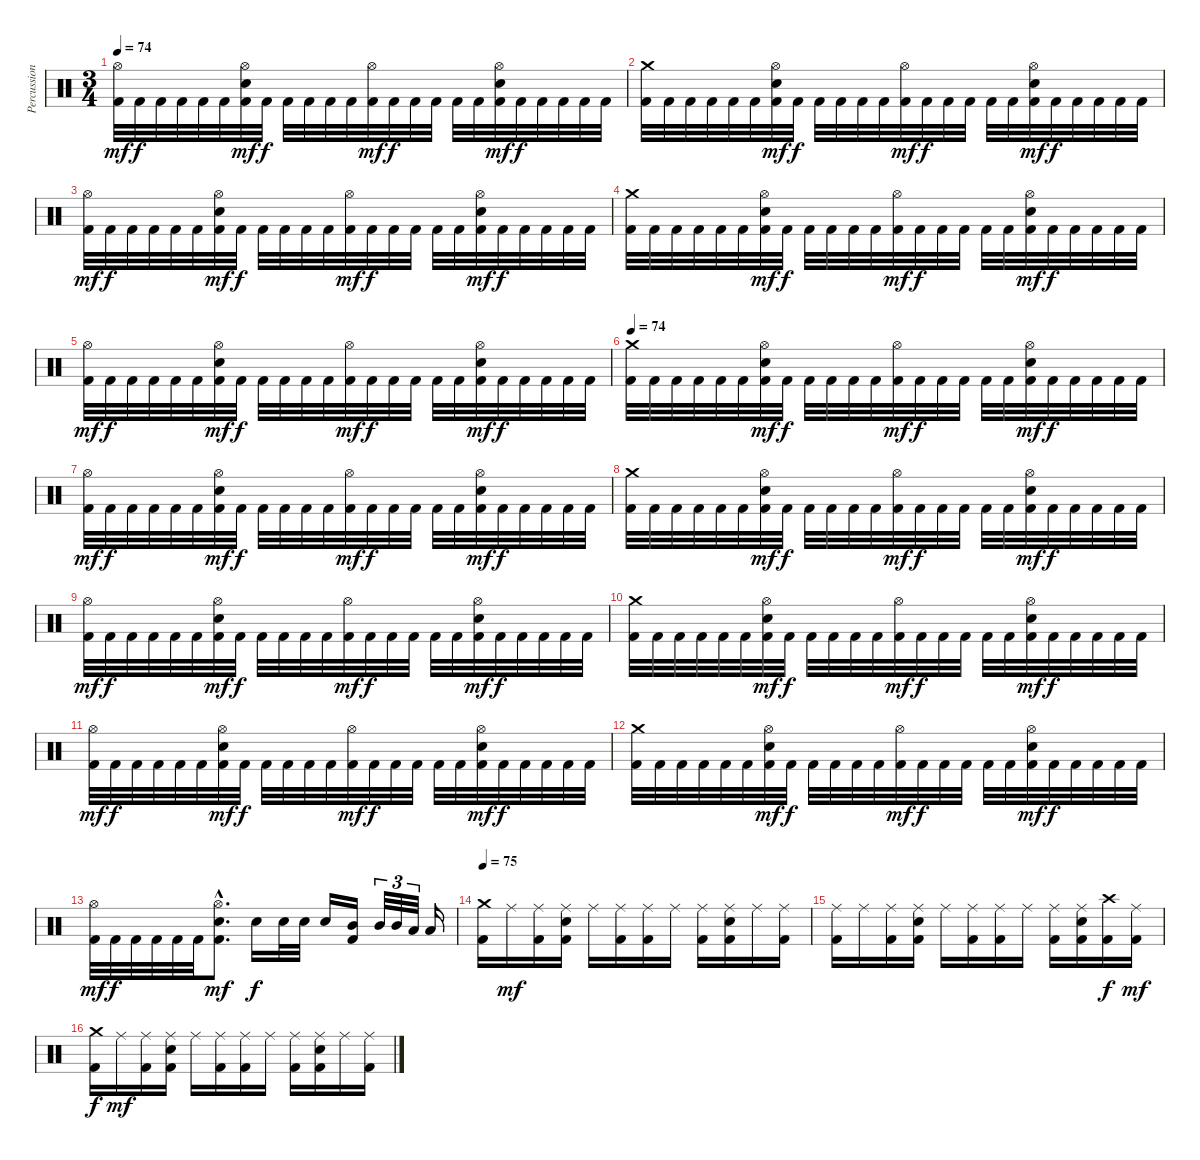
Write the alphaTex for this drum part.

\track ("Percussion" "Percussion") {instrument percussion}
\staff {score}
\articulation defaults
\ts (3 4)
\tempo 74
\clef neutral
\ks c
("Hi-Hat (open)" "Kick (hit) 2").32{dy mf} "Kick (hit) 2".32{dy f} "Kick (hit) 2".32 "Kick (hit) 2".32 "Kick (hit) 2".32 "Kick (hit) 2".32 ("Hi-Hat (open)" "Electric Snare (hit)" "Kick (hit) 2").32{dy mf} "Kick (hit) 2".32{dy f} "Kick (hit) 2".32 "Kick (hit) 2".32 "Kick (hit) 2".32 "Kick (hit) 2".32 ("Hi-Hat (open)" "Kick (hit) 2").32{dy mf} "Kick (hit) 2".32{dy f} "Kick (hit) 2".32 "Kick (hit) 2".32 "Kick (hit) 2".32 "Kick (hit) 2".32 ("Hi-Hat (open)" "Electric Snare (hit)" "Kick (hit) 2").32{dy mf} "Kick (hit) 2".32{dy f} "Kick (hit) 2".32 "Kick (hit) 2".32 "Kick (hit) 2".32 "Kick (hit) 2".32 |
("Crash medium (hit)" "Kick (hit) 2").32 "Kick (hit) 2".32 "Kick (hit) 2".32 "Kick (hit) 2".32 "Kick (hit) 2".32 "Kick (hit) 2".32 ("Hi-Hat (open)" "Electric Snare (hit)" "Kick (hit) 2").32{dy mf} "Kick (hit) 2".32{dy f} "Kick (hit) 2".32 "Kick (hit) 2".32 "Kick (hit) 2".32 "Kick (hit) 2".32 ("Hi-Hat (open)" "Kick (hit) 2").32{dy mf} "Kick (hit) 2".32{dy f} "Kick (hit) 2".32 "Kick (hit) 2".32 "Kick (hit) 2".32 "Kick (hit) 2".32 ("Hi-Hat (open)" "Electric Snare (hit)" "Kick (hit) 2").32{dy mf} "Kick (hit) 2".32{dy f} "Kick (hit) 2".32 "Kick (hit) 2".32 "Kick (hit) 2".32 "Kick (hit) 2".32 |
("Hi-Hat (open)" "Kick (hit) 2").32{dy mf} "Kick (hit) 2".32{dy f} "Kick (hit) 2".32 "Kick (hit) 2".32 "Kick (hit) 2".32 "Kick (hit) 2".32 ("Hi-Hat (open)" "Electric Snare (hit)" "Kick (hit) 2").32{dy mf} "Kick (hit) 2".32{dy f} "Kick (hit) 2".32 "Kick (hit) 2".32 "Kick (hit) 2".32 "Kick (hit) 2".32 ("Hi-Hat (open)" "Kick (hit) 2").32{dy mf} "Kick (hit) 2".32{dy f} "Kick (hit) 2".32 "Kick (hit) 2".32 "Kick (hit) 2".32 "Kick (hit) 2".32 ("Hi-Hat (open)" "Electric Snare (hit)" "Kick (hit) 2").32{dy mf} "Kick (hit) 2".32{dy f} "Kick (hit) 2".32 "Kick (hit) 2".32 "Kick (hit) 2".32 "Kick (hit) 2".32 |
("Crash medium (hit)" "Kick (hit) 2").32 "Kick (hit) 2".32 "Kick (hit) 2".32 "Kick (hit) 2".32 "Kick (hit) 2".32 "Kick (hit) 2".32 ("Hi-Hat (open)" "Electric Snare (hit)" "Kick (hit) 2").32{dy mf} "Kick (hit) 2".32{dy f} "Kick (hit) 2".32 "Kick (hit) 2".32 "Kick (hit) 2".32 "Kick (hit) 2".32 ("Hi-Hat (open)" "Kick (hit) 2").32{dy mf} "Kick (hit) 2".32{dy f} "Kick (hit) 2".32 "Kick (hit) 2".32 "Kick (hit) 2".32 "Kick (hit) 2".32 ("Hi-Hat (open)" "Electric Snare (hit)" "Kick (hit) 2").32{dy mf} "Kick (hit) 2".32{dy f} "Kick (hit) 2".32 "Kick (hit) 2".32 "Kick (hit) 2".32 "Kick (hit) 2".32 |
("Hi-Hat (open)" "Kick (hit) 2").32{dy mf} "Kick (hit) 2".32{dy f} "Kick (hit) 2".32 "Kick (hit) 2".32 "Kick (hit) 2".32 "Kick (hit) 2".32 ("Hi-Hat (open)" "Electric Snare (hit)" "Kick (hit) 2").32{dy mf} "Kick (hit) 2".32{dy f} "Kick (hit) 2".32 "Kick (hit) 2".32 "Kick (hit) 2".32 "Kick (hit) 2".32 ("Hi-Hat (open)" "Kick (hit) 2").32{dy mf} "Kick (hit) 2".32{dy f} "Kick (hit) 2".32 "Kick (hit) 2".32 "Kick (hit) 2".32 "Kick (hit) 2".32 ("Hi-Hat (open)" "Electric Snare (hit)" "Kick (hit) 2").32{dy mf} "Kick (hit) 2".32{dy f} "Kick (hit) 2".32 "Kick (hit) 2".32 "Kick (hit) 2".32 "Kick (hit) 2".32 |
\tempo 74
("Crash medium (hit)" "Kick (hit) 2").32 "Kick (hit) 2".32 "Kick (hit) 2".32 "Kick (hit) 2".32 "Kick (hit) 2".32 "Kick (hit) 2".32 ("Hi-Hat (open)" "Electric Snare (hit)" "Kick (hit) 2").32{dy mf} "Kick (hit) 2".32{dy f} "Kick (hit) 2".32 "Kick (hit) 2".32 "Kick (hit) 2".32 "Kick (hit) 2".32 ("Hi-Hat (open)" "Kick (hit) 2").32{dy mf} "Kick (hit) 2".32{dy f} "Kick (hit) 2".32 "Kick (hit) 2".32 "Kick (hit) 2".32 "Kick (hit) 2".32 ("Hi-Hat (open)" "Electric Snare (hit)" "Kick (hit) 2").32{dy mf} "Kick (hit) 2".32{dy f} "Kick (hit) 2".32 "Kick (hit) 2".32 "Kick (hit) 2".32 "Kick (hit) 2".32 |
("Hi-Hat (open)" "Kick (hit) 2").32{dy mf} "Kick (hit) 2".32{dy f} "Kick (hit) 2".32 "Kick (hit) 2".32 "Kick (hit) 2".32 "Kick (hit) 2".32 ("Hi-Hat (open)" "Electric Snare (hit)" "Kick (hit) 2").32{dy mf} "Kick (hit) 2".32{dy f} "Kick (hit) 2".32 "Kick (hit) 2".32 "Kick (hit) 2".32 "Kick (hit) 2".32 ("Hi-Hat (open)" "Kick (hit) 2").32{dy mf} "Kick (hit) 2".32{dy f} "Kick (hit) 2".32 "Kick (hit) 2".32 "Kick (hit) 2".32 "Kick (hit) 2".32 ("Hi-Hat (open)" "Electric Snare (hit)" "Kick (hit) 2").32{dy mf} "Kick (hit) 2".32{dy f} "Kick (hit) 2".32 "Kick (hit) 2".32 "Kick (hit) 2".32 "Kick (hit) 2".32 |
("Crash medium (hit)" "Kick (hit) 2").32 "Kick (hit) 2".32 "Kick (hit) 2".32 "Kick (hit) 2".32 "Kick (hit) 2".32 "Kick (hit) 2".32 ("Hi-Hat (open)" "Electric Snare (hit)" "Kick (hit) 2").32{dy mf} "Kick (hit) 2".32{dy f} "Kick (hit) 2".32 "Kick (hit) 2".32 "Kick (hit) 2".32 "Kick (hit) 2".32 ("Hi-Hat (open)" "Kick (hit) 2").32{dy mf} "Kick (hit) 2".32{dy f} "Kick (hit) 2".32 "Kick (hit) 2".32 "Kick (hit) 2".32 "Kick (hit) 2".32 ("Hi-Hat (open)" "Electric Snare (hit)" "Kick (hit) 2").32{dy mf} "Kick (hit) 2".32{dy f} "Kick (hit) 2".32 "Kick (hit) 2".32 "Kick (hit) 2".32 "Kick (hit) 2".32 |
("Hi-Hat (open)" "Kick (hit) 2").32{dy mf} "Kick (hit) 2".32{dy f} "Kick (hit) 2".32 "Kick (hit) 2".32 "Kick (hit) 2".32 "Kick (hit) 2".32 ("Hi-Hat (open)" "Electric Snare (hit)" "Kick (hit) 2").32{dy mf} "Kick (hit) 2".32{dy f} "Kick (hit) 2".32 "Kick (hit) 2".32 "Kick (hit) 2".32 "Kick (hit) 2".32 ("Hi-Hat (open)" "Kick (hit) 2").32{dy mf} "Kick (hit) 2".32{dy f} "Kick (hit) 2".32 "Kick (hit) 2".32 "Kick (hit) 2".32 "Kick (hit) 2".32 ("Hi-Hat (open)" "Electric Snare (hit)" "Kick (hit) 2").32{dy mf} "Kick (hit) 2".32{dy f} "Kick (hit) 2".32 "Kick (hit) 2".32 "Kick (hit) 2".32 "Kick (hit) 2".32 |
("Crash medium (hit)" "Kick (hit) 2").32 "Kick (hit) 2".32 "Kick (hit) 2".32 "Kick (hit) 2".32 "Kick (hit) 2".32 "Kick (hit) 2".32 ("Hi-Hat (open)" "Electric Snare (hit)" "Kick (hit) 2").32{dy mf} "Kick (hit) 2".32{dy f} "Kick (hit) 2".32 "Kick (hit) 2".32 "Kick (hit) 2".32 "Kick (hit) 2".32 ("Hi-Hat (open)" "Kick (hit) 2").32{dy mf} "Kick (hit) 2".32{dy f} "Kick (hit) 2".32 "Kick (hit) 2".32 "Kick (hit) 2".32 "Kick (hit) 2".32 ("Hi-Hat (open)" "Electric Snare (hit)" "Kick (hit) 2").32{dy mf} "Kick (hit) 2".32{dy f} "Kick (hit) 2".32 "Kick (hit) 2".32 "Kick (hit) 2".32 "Kick (hit) 2".32 |
("Hi-Hat (open)" "Kick (hit) 2").32{dy mf} "Kick (hit) 2".32{dy f} "Kick (hit) 2".32 "Kick (hit) 2".32 "Kick (hit) 2".32 "Kick (hit) 2".32 ("Hi-Hat (open)" "Electric Snare (hit)" "Kick (hit) 2").32{dy mf} "Kick (hit) 2".32{dy f} "Kick (hit) 2".32 "Kick (hit) 2".32 "Kick (hit) 2".32 "Kick (hit) 2".32 ("Hi-Hat (open)" "Kick (hit) 2").32{dy mf} "Kick (hit) 2".32{dy f} "Kick (hit) 2".32 "Kick (hit) 2".32 "Kick (hit) 2".32 "Kick (hit) 2".32 ("Hi-Hat (open)" "Electric Snare (hit)" "Kick (hit) 2").32{dy mf} "Kick (hit) 2".32{dy f} "Kick (hit) 2".32 "Kick (hit) 2".32 "Kick (hit) 2".32 "Kick (hit) 2".32 |
("Crash medium (hit)" "Kick (hit) 2").32 "Kick (hit) 2".32 "Kick (hit) 2".32 "Kick (hit) 2".32 "Kick (hit) 2".32 "Kick (hit) 2".32 ("Hi-Hat (open)" "Electric Snare (hit)" "Kick (hit) 2").32{dy mf} "Kick (hit) 2".32{dy f} "Kick (hit) 2".32 "Kick (hit) 2".32 "Kick (hit) 2".32 "Kick (hit) 2".32 ("Hi-Hat (open)" "Kick (hit) 2").32{dy mf} "Kick (hit) 2".32{dy f} "Kick (hit) 2".32 "Kick (hit) 2".32 "Kick (hit) 2".32 "Kick (hit) 2".32 ("Hi-Hat (open)" "Electric Snare (hit)" "Kick (hit) 2").32{dy mf} "Kick (hit) 2".32{dy f} "Kick (hit) 2".32 "Kick (hit) 2".32 "Kick (hit) 2".32 "Kick (hit) 2".32 |
("Hi-Hat (open)" "Kick (hit) 2").32{dy mf} "Kick (hit) 2".32{dy f} "Kick (hit) 2".32 "Kick (hit) 2".32 "Kick (hit) 2".32 "Kick (hit) 2".32 ("Hi-Hat (open)"{hac} "Electric Snare (hit)"{hac} "Kick (hit) 2"{hac}).8{d dy mf} "Electric Snare (hit)".16{dy f} "Electric Snare (hit)".32 "Electric Snare (hit)".32 "Electric Snare (hit)".16 ("Mid Tom (hit)" "Kick (hit) 2").16 "Mid Tom (hit)".32{tu (3 2)} "Mid Tom (hit)".32{tu (3 2)} "Low Tom (hit)".32{tu (3 2)} "Low Tom (hit)".16 |
\tempo 75
("Crash medium (hit)" "Kick (hit) 2").16 "Ride (middle)".16{dy mf} ("Ride (middle)" "Kick (hit) 2").16 ("Ride (middle)" "Electric Snare (hit)" "Kick (hit) 2").16 "Ride (middle)".16 ("Ride (middle)" "Kick (hit) 2").16 ("Ride (middle)" "Kick (hit) 2").16 "Ride (middle)".16 ("Ride (middle)" "Kick (hit) 2").16 ("Ride (middle)" "Electric Snare (hit)" "Kick (hit) 2").16 "Ride (middle)".16 ("Ride (middle)" "Kick (hit) 2").16 |
("Ride (middle)" "Kick (hit) 2").16 "Ride (middle)".16 ("Ride (middle)" "Kick (hit) 2").16 ("Ride (middle)" "Electric Snare (hit)" "Kick (hit) 2").16 "Ride (middle)".16 ("Ride (middle)" "Kick (hit) 2").16 ("Ride (middle)" "Kick (hit) 2").16 "Ride (middle)".16 ("Ride (middle)" "Kick (hit) 2").16 ("Ride (middle)" "Electric Snare (hit)" "Kick (hit) 2").16 ("Crash high (hit)" "Kick (hit) 2").16{dy f} ("Ride (middle)" "Kick (hit) 2").16{dy mf} |
("Crash medium (hit)" "Kick (hit) 2").16{dy f} "Ride (middle)".16{dy mf} ("Ride (middle)" "Kick (hit) 2").16 ("Ride (middle)" "Electric Snare (hit)" "Kick (hit) 2").16 "Ride (middle)".16 ("Ride (middle)" "Kick (hit) 2").16 ("Ride (middle)" "Kick (hit) 2").16 "Ride (middle)".16 ("Ride (middle)" "Kick (hit) 2").16 ("Ride (middle)" "Electric Snare (hit)" "Kick (hit) 2").16 "Ride (middle)".16 ("Ride (middle)" "Kick (hit) 2").16
